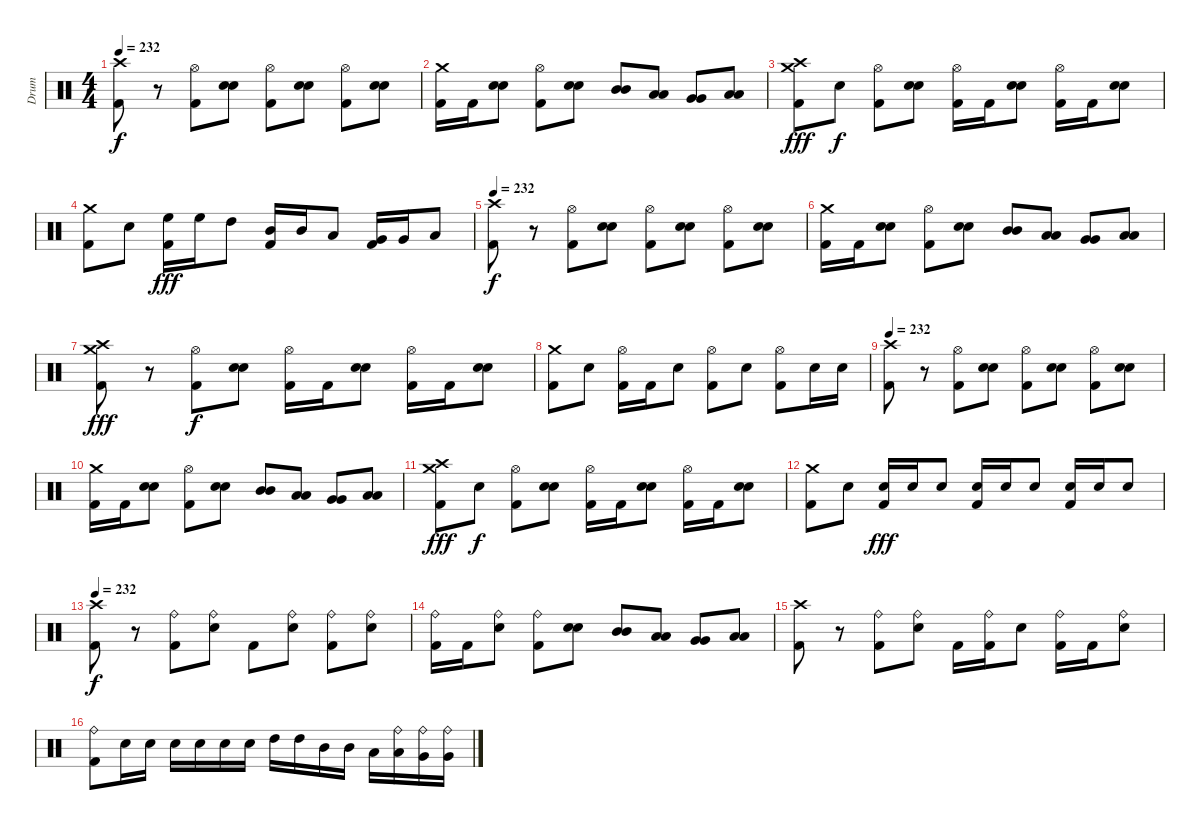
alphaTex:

\track ("Drum" "Drum") {instrument percussion}
\staff {score}
\articulation defaults
\ts (4 4)
\tempo 232
\clef neutral
\ks c
("Crash high (hit)" "Kick (hit) 2").8{dy f volume 13} r.8 ("Hi-Hat (open)" "Kick (hit) 2").8 ("Electric Snare (hit)" "Electric Snare (hit)").8 ("Hi-Hat (open)" "Kick (hit) 2").8 ("Electric Snare (hit)" "Electric Snare (hit)").8 ("Hi-Hat (open)" "Kick (hit) 2").8 ("Electric Snare (hit)" "Electric Snare (hit)").8 |
("Crash medium (hit)" "Kick (hit) 2").16 "Kick (hit) 2".16 ("Electric Snare (hit)" "Electric Snare (hit)").8 ("Hi-Hat (open)" "Kick (hit) 2").8 ("Electric Snare (hit)" "Electric Snare (hit)").8 ("Mid Tom (hit)" "Mid Tom (hit)").8 ("Low Tom (hit)" "Low Tom (hit)").8 ("Very Low Tom (hit)" "Very Low Tom (hit)").8 ("Low Floor Tom (hit)" "Low Floor Tom (hit)").8 |
("Crash medium (hit)" "Crash high (hit)" "Kick (hit) 2").8{dy fff} "Electric Snare (hit)".8{dy f} ("Hi-Hat (open)" "Kick (hit) 2").8 ("Electric Snare (hit)" "Electric Snare (hit)").8 ("Hi-Hat (open)" "Kick (hit) 2").16 "Kick (hit) 2".16 ("Electric Snare (hit)" "Electric Snare (hit)").8 ("Hi-Hat (open)" "Kick (hit) 2").16 "Kick (hit) 2".16 ("Electric Snare (hit)" "Electric Snare (hit)").8 |
("Crash medium (hit)" "Kick (hit) 2").8 "Electric Snare (hit)".8 ("High Floor Tom (hit)" "Kick (hit) 2").16{dy fff} "High Floor Tom (hit)".16 "High Tom (hit)".8 ("Mid Tom (hit)" "Kick (hit) 2").16 "Mid Tom (hit)".16 "Low Tom (hit)".8 ("Very Low Tom (hit)" "Kick (hit) 2").16 "Very Low Tom (hit)".16 "Low Floor Tom (hit)".8 |
\tempo 232
("Crash high (hit)" "Kick (hit) 2").8{dy f volume 13} r.8 ("Hi-Hat (open)" "Kick (hit) 2").8 ("Electric Snare (hit)" "Electric Snare (hit)").8 ("Hi-Hat (open)" "Kick (hit) 2").8 ("Electric Snare (hit)" "Electric Snare (hit)").8 ("Hi-Hat (open)" "Kick (hit) 2").8 ("Electric Snare (hit)" "Electric Snare (hit)").8 |
("Crash medium (hit)" "Kick (hit) 2").16 "Kick (hit) 2".16 ("Electric Snare (hit)" "Electric Snare (hit)").8 ("Hi-Hat (open)" "Kick (hit) 2").8 ("Electric Snare (hit)" "Electric Snare (hit)").8 ("Mid Tom (hit)" "Mid Tom (hit)").8 ("Low Tom (hit)" "Low Tom (hit)").8 ("Very Low Tom (hit)" "Very Low Tom (hit)").8 ("Low Floor Tom (hit)" "Low Floor Tom (hit)").8 |
("Crash medium (hit)" "Crash high (hit)" "Kick (hit) 2").8{dy fff} r.8 ("Hi-Hat (open)" "Kick (hit) 2").8{dy f} ("Electric Snare (hit)" "Electric Snare (hit)").8 ("Hi-Hat (open)" "Kick (hit) 2").16 "Kick (hit) 2".16 ("Electric Snare (hit)" "Electric Snare (hit)").8 ("Hi-Hat (open)" "Kick (hit) 2").16 "Kick (hit) 2".16 ("Electric Snare (hit)" "Electric Snare (hit)").8 |
("Crash medium (hit)" "Kick (hit) 2").8 "Electric Snare (hit)".8 ("Hi-Hat (open)" "Kick (hit) 2").16 "Kick (hit) 2".16 "Electric Snare (hit)".8 ("Hi-Hat (open)" "Kick (hit) 2").8 "Electric Snare (hit)".8 ("Hi-Hat (open)" "Kick (hit) 2").8 "Electric Snare (hit)".16 "Electric Snare (hit)".16 |
\tempo 232
("Crash high (hit)" "Kick (hit) 2").8{volume 13} r.8 ("Hi-Hat (open)" "Kick (hit) 2").8 ("Electric Snare (hit)" "Electric Snare (hit)").8 ("Hi-Hat (open)" "Kick (hit) 2").8 ("Electric Snare (hit)" "Electric Snare (hit)").8 ("Hi-Hat (open)" "Kick (hit) 2").8 ("Electric Snare (hit)" "Electric Snare (hit)").8 |
("Crash medium (hit)" "Kick (hit) 2").16 "Kick (hit) 2".16 ("Electric Snare (hit)" "Electric Snare (hit)").8 ("Hi-Hat (open)" "Kick (hit) 2").8 ("Electric Snare (hit)" "Electric Snare (hit)").8 ("Mid Tom (hit)" "Mid Tom (hit)").8 ("Low Tom (hit)" "Low Tom (hit)").8 ("Very Low Tom (hit)" "Very Low Tom (hit)").8 ("Low Floor Tom (hit)" "Low Floor Tom (hit)").8 |
("Crash medium (hit)" "Crash high (hit)" "Kick (hit) 2").8{dy fff} "Electric Snare (hit)".8{dy f} ("Hi-Hat (open)" "Kick (hit) 2").8 ("Electric Snare (hit)" "Electric Snare (hit)").8 ("Hi-Hat (open)" "Kick (hit) 2").16 "Kick (hit) 2".16 ("Electric Snare (hit)" "Electric Snare (hit)").8 ("Hi-Hat (open)" "Kick (hit) 2").16 "Kick (hit) 2".16 ("Electric Snare (hit)" "Electric Snare (hit)").8 |
("Crash medium (hit)" "Kick (hit) 2").8 "Electric Snare (hit)".8 ("Electric Snare (hit)" "Kick (hit) 2").16{dy fff} "Electric Snare (hit)".16 "Electric Snare (hit)".8 ("Electric Snare (hit)" "Kick (hit) 2").16 "Electric Snare (hit)".16 "Electric Snare (hit)".8 ("Electric Snare (hit)" "Kick (hit) 2").16 "Electric Snare (hit)".16 "Electric Snare (hit)".8 |
\tempo 232
("Crash high (hit)" "Kick (hit) 2").8{dy f volume 13} r.8 ("Ride (bell)" "Kick (hit) 2").8 ("Ride (bell)" "Electric Snare (hit)").8 "Kick (hit) 2".8 ("Ride (bell)" "Electric Snare (hit)").8 ("Ride (bell)" "Kick (hit) 2").8 ("Ride (bell)" "Electric Snare (hit)").8 |
("Ride (bell)" "Kick (hit) 2").16 "Kick (hit) 2".16 ("Ride (bell)" "Electric Snare (hit)").8 ("Ride (bell)" "Kick (hit) 2").8 ("Electric Snare (hit)" "Electric Snare (hit)").8 ("Mid Tom (hit)" "Mid Tom (hit)").8 ("Low Tom (hit)" "Low Tom (hit)").8 ("Very Low Tom (hit)" "Very Low Tom (hit)").8 ("Low Floor Tom (hit)" "Low Floor Tom (hit)").8 |
("Crash high (hit)" "Kick (hit) 2").8 r.8 ("Ride (bell)" "Kick (hit) 2").8 ("Ride (bell)" "Electric Snare (hit)").8 "Kick (hit) 2".16 ("Ride (bell)" "Kick (hit) 2").16 "Electric Snare (hit)".8 ("Ride (bell)" "Kick (hit) 2").16 "Kick (hit) 2".16 ("Ride (bell)" "Electric Snare (hit)").8 |
("Ride (bell)" "Kick (hit) 2").8 "Electric Snare (hit)".16 "Electric Snare (hit)".16 "Electric Snare (hit)".16 "Electric Snare (hit)".16 "Electric Snare (hit)".16 "Electric Snare (hit)".16 "High Tom (hit)".16 "High Tom (hit)".16 "Mid Tom (hit)".16 "Mid Tom (hit)".16 "Low Tom (hit)".16 ("Ride (bell)" "Low Tom (hit)").16 ("Ride (bell)" "Very Low Tom (hit)").16 ("Ride (bell)" "Very Low Tom (hit)").16
